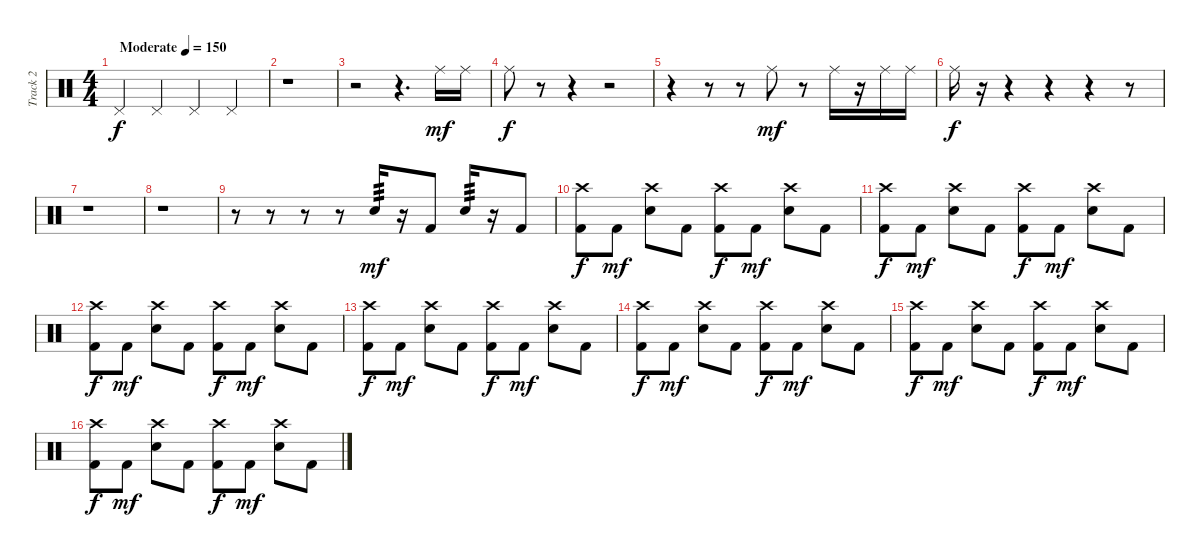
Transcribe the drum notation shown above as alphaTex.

\track ("Track 2" "Track 2") {instrument percussion}
\staff {score}
\articulation defaults
\ts (4 4)
\tempo (150 "Moderate")
\clef neutral
\ks c "Pedal Hi-Hat (hit)".4{dy f} "Pedal Hi-Hat (hit)".4 "Pedal Hi-Hat (hit)".4 "Pedal Hi-Hat (hit)".4
|
r.1 |
r.2 r.4{d} "Ride (middle)".16{dy mf} "Ride (middle)".16 |
"Ride (middle)".8{dy f} r.8 r.4 r.2 |
r.4 r.8 r.8 "Ride (middle)".8{dy mf} r.8 "Ride (middle)".16 r.16 "Ride (middle)".16 "Ride (middle)".16 |
"Ride (middle)".16{dy f} r.16 r.4 r.4 r.4 r.8 |
r.1 |
r.1 |
r.8 r.8 r.8 r.8 "Electric Snare (hit)".16{tp 3 dy mf} r.16 "Kick (hit) 2".8 "Electric Snare (hit)".16{tp 3} r.16 "Kick (hit) 2".8 |
("Crash high (hit)" "Kick (hit) 2").8{dy f} "Kick (hit) 2".8{dy mf} ("Crash high (hit)" "Electric Snare (hit)").8 "Kick (hit) 2".8 ("Crash high (hit)" "Kick (hit) 2").8{dy f} "Kick (hit) 2".8{dy mf} ("Crash high (hit)" "Electric Snare (hit)").8 "Kick (hit) 2".8 |
("Crash high (hit)" "Kick (hit) 2").8{dy f} "Kick (hit) 2".8{dy mf} ("Crash high (hit)" "Electric Snare (hit)").8 "Kick (hit) 2".8 ("Crash high (hit)" "Kick (hit) 2").8{dy f} "Kick (hit) 2".8{dy mf} ("Crash high (hit)" "Electric Snare (hit)").8 "Kick (hit) 2".8 |
("Crash high (hit)" "Kick (hit) 2").8{dy f} "Kick (hit) 2".8{dy mf} ("Crash high (hit)" "Electric Snare (hit)").8 "Kick (hit) 2".8 ("Crash high (hit)" "Kick (hit) 2").8{dy f} "Kick (hit) 2".8{dy mf} ("Crash high (hit)" "Electric Snare (hit)").8 "Kick (hit) 2".8 |
("Crash high (hit)" "Kick (hit) 2").8{dy f} "Kick (hit) 2".8{dy mf} ("Crash high (hit)" "Electric Snare (hit)").8 "Kick (hit) 2".8 ("Crash high (hit)" "Kick (hit) 2").8{dy f} "Kick (hit) 2".8{dy mf} ("Crash high (hit)" "Electric Snare (hit)").8 "Kick (hit) 2".8 |
("Crash high (hit)" "Kick (hit) 2").8{dy f} "Kick (hit) 2".8{dy mf} ("Crash high (hit)" "Electric Snare (hit)").8 "Kick (hit) 2".8 ("Crash high (hit)" "Kick (hit) 2").8{dy f} "Kick (hit) 2".8{dy mf} ("Crash high (hit)" "Electric Snare (hit)").8 "Kick (hit) 2".8 |
("Crash high (hit)" "Kick (hit) 2").8{dy f} "Kick (hit) 2".8{dy mf} ("Crash high (hit)" "Electric Snare (hit)").8 "Kick (hit) 2".8 ("Crash high (hit)" "Kick (hit) 2").8{dy f} "Kick (hit) 2".8{dy mf} ("Crash high (hit)" "Electric Snare (hit)").8 "Kick (hit) 2".8 |
("Crash high (hit)" "Kick (hit) 2").8{dy f} "Kick (hit) 2".8{dy mf} ("Crash high (hit)" "Electric Snare (hit)").8 "Kick (hit) 2".8 ("Crash high (hit)" "Kick (hit) 2").8{dy f} "Kick (hit) 2".8{dy mf} ("Crash high (hit)" "Electric Snare (hit)").8 "Kick (hit) 2".8
